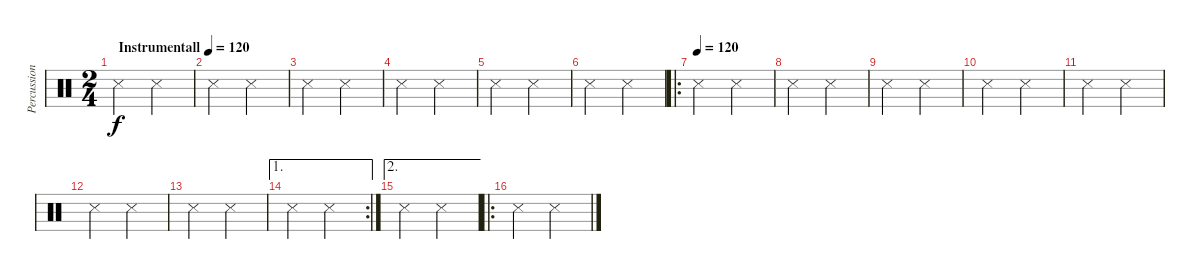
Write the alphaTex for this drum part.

\track ("Percussion" "Percussion") {instrument percussion}
\staff {score}
\articulation defaults
\ts (2 4)
\tempo (120 "Instrumentall")
\clef neutral
\ks aminor "Snare (side stick) 3".4{dy f} "Snare (side stick) 3".4
|
"Snare (side stick) 3".4 "Snare (side stick) 3".4 |
"Snare (side stick) 3".4 "Snare (side stick) 3".4 |
"Snare (side stick) 3".4 "Snare (side stick) 3".4 |
"Snare (side stick) 3".4 "Snare (side stick) 3".4 |
"Snare (side stick) 3".4 "Snare (side stick) 3".4 |
\ro
\tempo (120)
"Snare (side stick) 3".4 "Snare (side stick) 3".4 |
"Snare (side stick) 3".4 "Snare (side stick) 3".4 |
"Snare (side stick) 3".4 "Snare (side stick) 3".4 |
"Snare (side stick) 3".4 "Snare (side stick) 3".4 |
"Snare (side stick) 3".4 "Snare (side stick) 3".4 |
"Snare (side stick) 3".4 "Snare (side stick) 3".4 |
"Snare (side stick) 3".4 "Snare (side stick) 3".4 |
\ae 1
\rc 2 "Snare (side stick) 3".4 "Snare (side stick) 3".4
|
\ae 2 "Snare (side stick) 3".4 "Snare (side stick) 3".4
|
\ro "Snare (side stick) 3".4 "Snare (side stick) 3".4
